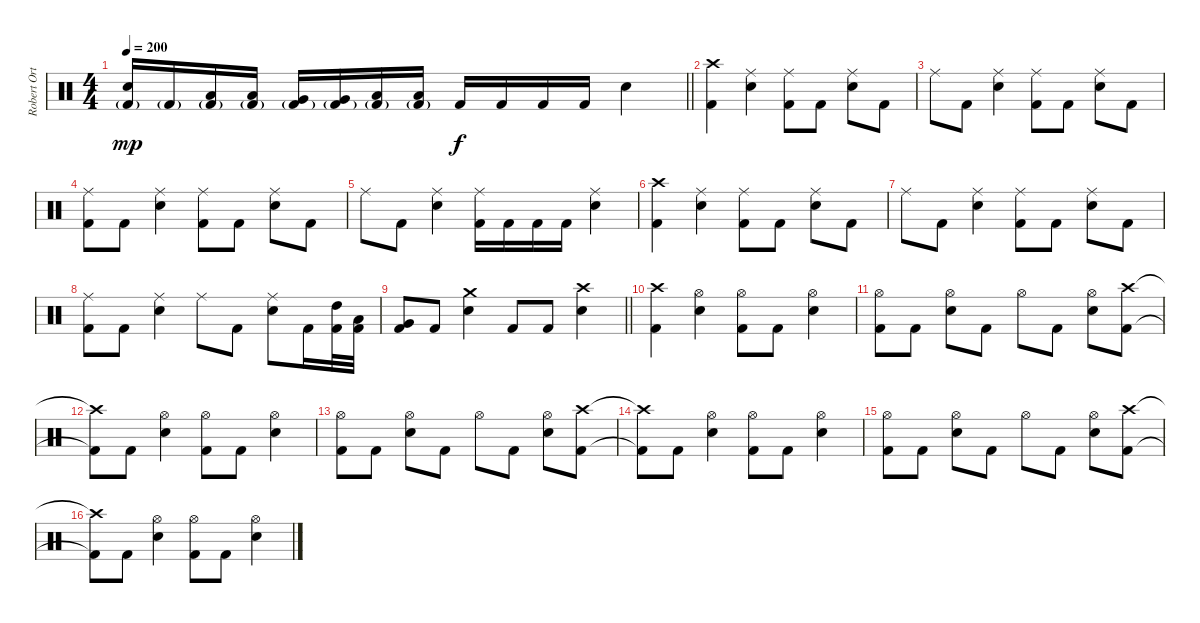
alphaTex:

\track ("Robert Ortiz - Drums" "Robert Ort") {instrument percussion}
\staff {score}
\articulation defaults
\ts (4 4)
\tempo 200
\clef neutral
\barLineRight lightlight
\ks c
("Electric Snare (hit)" "Kick (hit) 2"{g}).16{dy mp} "Kick (hit) 2"{g}.16 ("Low Tom (hit)" "Kick (hit) 2"{g}).16 ("Low Tom (hit)" "Kick (hit) 2"{g}).16 ("Very Low Tom (hit)" "Kick (hit) 2"{g}).16 ("Very Low Tom (hit)" "Kick (hit) 2"{g}).16 ("Low Floor Tom (hit)" "Kick (hit) 2"{g}).16 ("Low Floor Tom (hit)" "Kick (hit) 2"{g}).16 "Kick (hit) 2".16{dy f} "Kick (hit) 2".16 "Kick (hit) 2".16 "Kick (hit) 2".16 "Electric Snare (hit)".4 |
("Crash high (hit)" "Kick (hit) 2").4 ("Ride (middle)" "Electric Snare (hit)").4 ("Ride (middle)" "Kick (hit) 2").8 "Kick (hit) 2".8 ("Ride (middle)" "Electric Snare (hit)").8 "Kick (hit) 2".8 |
"Ride (middle)".8 "Kick (hit) 2".8 ("Ride (middle)" "Electric Snare (hit)").4 ("Ride (middle)" "Kick (hit) 2").8 "Kick (hit) 2".8 ("Ride (middle)" "Electric Snare (hit)").8 "Kick (hit) 2".8 |
("Ride (middle)" "Kick (hit) 2").8 "Kick (hit) 2".8 ("Ride (middle)" "Electric Snare (hit)").4 ("Ride (middle)" "Kick (hit) 2").8 "Kick (hit) 2".8 ("Ride (middle)" "Electric Snare (hit)").8 "Kick (hit) 2".8 |
"Ride (middle)".8 "Kick (hit) 2".8 ("Ride (middle)" "Electric Snare (hit)").4 ("Ride (middle)" "Kick (hit) 2").16 "Kick (hit) 2".16 "Kick (hit) 2".16 "Kick (hit) 2".16 ("Ride (middle)" "Electric Snare (hit)").4 |
("Crash high (hit)" "Kick (hit) 2").4 ("Ride (middle)" "Electric Snare (hit)").4 ("Ride (middle)" "Kick (hit) 2").8 "Kick (hit) 2".8 ("Ride (middle)" "Electric Snare (hit)").8 "Kick (hit) 2".8 |
"Ride (middle)".8 "Kick (hit) 2".8 ("Ride (middle)" "Electric Snare (hit)").4 ("Ride (middle)" "Kick (hit) 2").8 "Kick (hit) 2".8 ("Ride (middle)" "Electric Snare (hit)").8 "Kick (hit) 2".8 |
("Ride (middle)" "Kick (hit) 2").8 "Kick (hit) 2".8 ("Ride (middle)" "Electric Snare (hit)").4 "Ride (middle)".8 "Kick (hit) 2".8 ("Ride (middle)" "Electric Snare (hit)").8 "Kick (hit) 2".16 ("High Tom (hit)" "Kick (hit) 2").32 ("Low Tom (hit)" "Kick (hit) 2").32 |
\barLineRight lightlight
("Very Low Tom (hit)" "Kick (hit) 2").8 "Kick (hit) 2".8 ("Crash medium (hit)" "Electric Snare (hit)").4 "Kick (hit) 2".8 "Kick (hit) 2".8 ("Crash high (hit)" "Electric Snare (hit)").4 |
("Crash high (hit)" "Kick (hit) 2").4 ("Hi-Hat (open)" "Electric Snare (hit)").4 ("Hi-Hat (open)" "Kick (hit) 2").8 "Kick (hit) 2".8 ("Hi-Hat (open)" "Electric Snare (hit)").4 |
("Hi-Hat (open)" "Kick (hit) 2").8 "Kick (hit) 2".8 ("Hi-Hat (open)" "Electric Snare (hit)").8 "Kick (hit) 2".8 "Hi-Hat (open)".8 "Kick (hit) 2".8 ("Hi-Hat (open)" "Electric Snare (hit)").8 ("Crash high (hit)" "Kick (hit) 2").8 |
("Crash high (hit)"{t} "Kick (hit) 2"{t}).8 "Kick (hit) 2".8 ("Hi-Hat (open)" "Electric Snare (hit)").4 ("Hi-Hat (open)" "Kick (hit) 2").8 "Kick (hit) 2".8 ("Hi-Hat (open)" "Electric Snare (hit)").4 |
("Hi-Hat (open)" "Kick (hit) 2").8 "Kick (hit) 2".8 ("Hi-Hat (open)" "Electric Snare (hit)").8 "Kick (hit) 2".8 "Hi-Hat (open)".8 "Kick (hit) 2".8 ("Hi-Hat (open)" "Electric Snare (hit)").8 ("Crash high (hit)" "Kick (hit) 2").8 |
("Crash high (hit)"{t} "Kick (hit) 2"{t}).8 "Kick (hit) 2".8 ("Hi-Hat (open)" "Electric Snare (hit)").4 ("Hi-Hat (open)" "Kick (hit) 2").8 "Kick (hit) 2".8 ("Hi-Hat (open)" "Electric Snare (hit)").4 |
("Hi-Hat (open)" "Kick (hit) 2").8 "Kick (hit) 2".8 ("Hi-Hat (open)" "Electric Snare (hit)").8 "Kick (hit) 2".8 "Hi-Hat (open)".8 "Kick (hit) 2".8 ("Hi-Hat (open)" "Electric Snare (hit)").8 ("Crash high (hit)" "Kick (hit) 2").8 |
("Crash high (hit)"{t} "Kick (hit) 2"{t}).8 "Kick (hit) 2".8 ("Hi-Hat (open)" "Electric Snare (hit)").4 ("Hi-Hat (open)" "Kick (hit) 2").8 "Kick (hit) 2".8 ("Hi-Hat (open)" "Electric Snare (hit)").4
